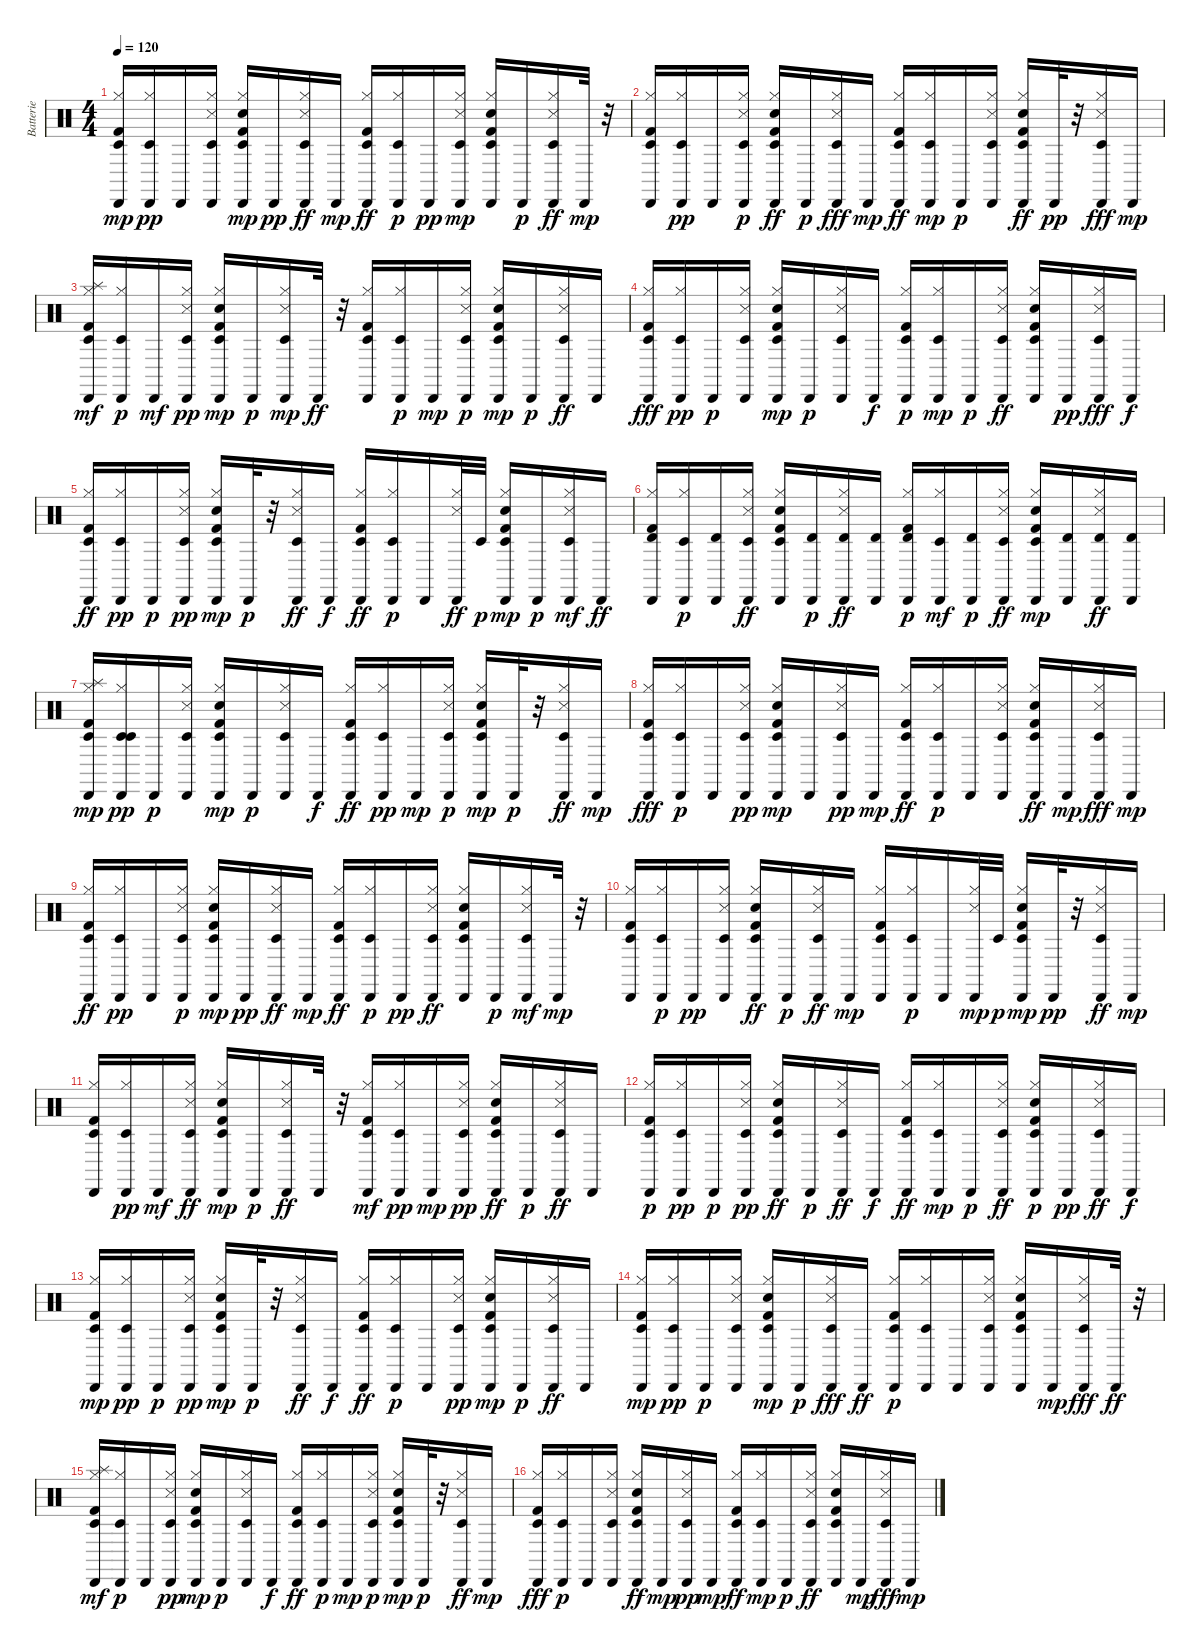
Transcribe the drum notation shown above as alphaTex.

\track ("Batterie" "Batterie") {instrument percussion}
\staff {score}
\articulation defaults
\ts (4 4)
\tempo 120
\clef neutral
\ks c
("Kick (hit) 2" "Cabasa (hit)" "Hi-Hat (closed)" "Timbale low (hit)").16{dy mp} ("Hi-Hat (closed)" "Timbale low (hit)" "Cabasa (hit)").16{dy pp} "Cabasa (hit)".16 ("Snare (side stick) 3" "Cabasa (hit)" "Hi-Hat (closed)" "Timbale low (hit)").16 ("Timbale low (hit)" "Kick (hit) 2" "Hi-Hat (closed)" "Cabasa (hit)" "Hand Clap (hit)").16{dy mp} "Cabasa (hit)".16{dy pp} ("Cabasa (hit)" "Timbale low (hit)" "Snare (side stick) 3" "Hi-Hat (closed)").16{dy ff} "Cabasa (hit)".16{dy mp} ("Timbale low (hit)" "Kick (hit) 2" "Cabasa (hit)" "Hi-Hat (closed)").16{dy ff} ("Hi-Hat (closed)" "Timbale low (hit)" "Cabasa (hit)").16{dy p} "Cabasa (hit)".16{dy pp} ("Snare (side stick) 3" "Timbale low (hit)" "Cabasa (hit)" "Hi-Hat (closed)").16{dy mp} ("Timbale low (hit)" "Kick (hit) 2" "Hand Clap (hit)" "Cabasa (hit)" "Hi-Hat (closed)").16 "Cabasa (hit)".16{dy p} ("Cabasa (hit)" "Hi-Hat (closed)" "Snare (side stick) 3" "Timbale low (hit)").16{dy ff} "Cabasa (hit)".32{dy mp} r.32 |
("Kick (hit) 2" "Cabasa (hit)" "Hi-Hat (closed)" "Timbale low (hit)").16 ("Hi-Hat (closed)" "Cabasa (hit)" "Timbale low (hit)").16{dy pp} "Cabasa (hit)".16 ("Cabasa (hit)" "Snare (side stick) 3" "Hi-Hat (closed)" "Timbale low (hit)").16{dy p} ("Timbale low (hit)" "Hi-Hat (closed)" "Kick (hit) 2" "Cabasa (hit)" "Hand Clap (hit)").16{dy ff} "Cabasa (hit)".16{dy p} ("Timbale low (hit)" "Cabasa (hit)" "Hi-Hat (closed)" "Snare (side stick) 3").16{dy fff} "Cabasa (hit)".16{dy mp} ("Timbale low (hit)" "Kick (hit) 2" "Cabasa (hit)" "Hi-Hat (closed)").16{dy ff} ("Hi-Hat (closed)" "Timbale low (hit)" "Cabasa (hit)").16{dy mp} "Cabasa (hit)".16{dy p} ("Hi-Hat (closed)" "Cabasa (hit)" "Snare (side stick) 3" "Timbale low (hit)").16 ("Hi-Hat (closed)" "Timbale low (hit)" "Kick (hit) 2" "Cabasa (hit)" "Hand Clap (hit)").16{dy ff} "Cabasa (hit)".32{dy pp} r.32 ("Cabasa (hit)" "Hi-Hat (closed)" "Timbale low (hit)" "Snare (side stick) 3").16{dy fff} "Cabasa (hit)".16{dy mp} |
("Hi-Hat (closed)" "Splash (hit)" "Kick (hit) 2" "Cabasa (hit)" "Timbale low (hit)").16{dy mf} ("Hi-Hat (closed)" "Cabasa (hit)" "Timbale low (hit)").16{dy p} "Cabasa (hit)".16{dy mf} ("Cabasa (hit)" "Snare (side stick) 3" "Hi-Hat (closed)" "Timbale low (hit)").16{dy pp} ("Hand Clap (hit)" "Hi-Hat (closed)" "Cabasa (hit)" "Kick (hit) 2" "Timbale low (hit)").16{dy mp} "Cabasa (hit)".16{dy p} ("Cabasa (hit)" "Snare (side stick) 3" "Hi-Hat (closed)" "Timbale low (hit)").16{dy mp} "Cabasa (hit)".32{dy ff} r.32 ("Cabasa (hit)" "Kick (hit) 2" "Timbale low (hit)" "Hi-Hat (closed)").16 ("Cabasa (hit)" "Hi-Hat (closed)" "Timbale low (hit)").16{dy p} "Cabasa (hit)".16{dy mp} ("Snare (side stick) 3" "Cabasa (hit)" "Timbale low (hit)" "Hi-Hat (closed)").16{dy p} ("Timbale low (hit)" "Cabasa (hit)" "Hand Clap (hit)" "Kick (hit) 2" "Hi-Hat (closed)").16{dy mp} "Cabasa (hit)".16{dy p} ("Timbale low (hit)" "Cabasa (hit)" "Snare (side stick) 3" "Hi-Hat (closed)").16{dy ff} "Cabasa (hit)".16 |
("Timbale low (hit)" "Cabasa (hit)" "Kick (hit) 2" "Hi-Hat (closed)").16{dy fff} ("Hi-Hat (closed)" "Timbale low (hit)" "Cabasa (hit)").16{dy pp} "Cabasa (hit)".16{dy p} ("Cabasa (hit)" "Snare (side stick) 3" "Timbale low (hit)" "Hi-Hat (closed)").16 ("Timbale low (hit)" "Kick (hit) 2" "Hi-Hat (closed)" "Cabasa (hit)" "Hand Clap (hit)").16{dy mp} "Cabasa (hit)".16{dy p} ("Timbale low (hit)" "Hi-Hat (closed)" "Cabasa (hit)" "Snare (side stick) 3").16 "Cabasa (hit)".16{dy f} ("Timbale low (hit)" "Kick (hit) 2" "Hi-Hat (closed)" "Cabasa (hit)").16{dy p} ("Timbale low (hit)" "Hi-Hat (closed)" "Cabasa (hit)").16{dy mp} "Cabasa (hit)".16{dy p} ("Cabasa (hit)" "Timbale low (hit)" "Hi-Hat (closed)" "Snare (side stick) 3").16{dy ff} ("Timbale low (hit)" "Hi-Hat (closed)" "Cabasa (hit)" "Kick (hit) 2" "Hand Clap (hit)").16 "Cabasa (hit)".16{dy pp} ("Cabasa (hit)" "Timbale low (hit)" "Hi-Hat (closed)" "Snare (side stick) 3").16{dy fff} "Cabasa (hit)".16{dy f} |
("Kick (hit) 2" "Cabasa (hit)" "Timbale low (hit)" "Hi-Hat (closed)").16{dy ff} ("Hi-Hat (closed)" "Timbale low (hit)" "Cabasa (hit)").16{dy pp} "Cabasa (hit)".16{dy p} ("Cabasa (hit)" "Snare (side stick) 3" "Hi-Hat (closed)" "Timbale low (hit)").16{dy pp} ("Kick (hit) 2" "Hi-Hat (closed)" "Timbale low (hit)" "Cabasa (hit)" "Hand Clap (hit)").16{dy mp} "Cabasa (hit)".32{dy p} r.32 ("Cabasa (hit)" "Snare (side stick) 3" "Timbale low (hit)" "Hi-Hat (closed)").16{dy ff} "Cabasa (hit)".16{dy f} ("Kick (hit) 2" "Cabasa (hit)" "Timbale low (hit)" "Hi-Hat (closed)").16{dy ff} ("Hi-Hat (closed)" "Cabasa (hit)" "Timbale low (hit)").16{dy p} "Cabasa (hit)".16 ("Cabasa (hit)" "Snare (side stick) 3" "Hi-Hat (closed)").32{dy ff} "Timbale low (hit)".32{dy p} ("Hi-Hat (closed)" "Kick (hit) 2" "Hand Clap (hit)" "Timbale low (hit)" "Cabasa (hit)").16{dy mp} "Cabasa (hit)".16{dy p} ("Cabasa (hit)" "Snare (side stick) 3" "Hi-Hat (closed)" "Timbale low (hit)").16{dy mf} "Cabasa (hit)".16{dy ff} |
("Timbale high (hit)" "Cabasa (hit)" "Kick (hit) 2" "Hi-Hat (closed)").16 ("Hi-Hat (closed)" "Timbale low (hit)" "Cabasa (hit)").16{dy p} ("Timbale high (hit)" "Cabasa (hit)").16 ("Timbale low (hit)" "Cabasa (hit)" "Snare (side stick) 3" "Hi-Hat (closed)").16{dy ff} ("Hi-Hat (closed)" "Timbale low (hit)" "Cabasa (hit)" "Kick (hit) 2" "Hand Clap (hit)").16 ("Timbale high (hit)" "Cabasa (hit)").16{dy p} ("Timbale high (hit)" "Cabasa (hit)" "Snare (side stick) 3" "Hi-Hat (closed)").16{dy ff} ("Timbale high (hit)" "Cabasa (hit)").16 ("Timbale high (hit)" "Kick (hit) 2" "Cabasa (hit)" "Hi-Hat (closed)").16{dy p} ("Timbale low (hit)" "Cabasa (hit)" "Hi-Hat (closed)").16{dy mf} ("Timbale high (hit)" "Cabasa (hit)").16{dy p} ("Timbale low (hit)" "Cabasa (hit)" "Snare (side stick) 3" "Hi-Hat (closed)").16{dy ff} ("Timbale low (hit)" "Cabasa (hit)" "Kick (hit) 2" "Hi-Hat (closed)" "Hand Clap (hit)").16{dy mp} ("Timbale high (hit)" "Cabasa (hit)").16 ("Timbale high (hit)" "Cabasa (hit)" "Hi-Hat (closed)" "Snare (side stick) 3").16{dy ff} ("Timbale high (hit)" "Cabasa (hit)").16 |
("Hi-Hat (closed)" "Splash (hit)" "Kick (hit) 2" "Cabasa (hit)" "Timbale low (hit)").16{dy mp} ("Hi-Hat (closed)" "Cabasa (hit)" "Timbale low (hit)" "Timbale low (hit)").16{dy pp} "Cabasa (hit)".16{dy p} ("Snare (side stick) 3" "Cabasa (hit)" "Hi-Hat (closed)" "Timbale low (hit)").16 ("Timbale low (hit)" "Hand Clap (hit)" "Hi-Hat (closed)" "Kick (hit) 2" "Cabasa (hit)").16{dy mp} "Cabasa (hit)".16{dy p} ("Timbale low (hit)" "Snare (side stick) 3" "Cabasa (hit)" "Hi-Hat (closed)").16 "Cabasa (hit)".16{dy f} ("Timbale low (hit)" "Kick (hit) 2" "Cabasa (hit)" "Hi-Hat (closed)").16{dy ff} ("Timbale low (hit)" "Hi-Hat (closed)" "Cabasa (hit)").16{dy pp} "Cabasa (hit)".16{dy mp} ("Snare (side stick) 3" "Cabasa (hit)" "Timbale low (hit)" "Hi-Hat (closed)").16{dy p} ("Timbale low (hit)" "Hand Clap (hit)" "Kick (hit) 2" "Cabasa (hit)" "Hi-Hat (closed)").16{dy mp} "Cabasa (hit)".32{dy p} r.32 ("Snare (side stick) 3" "Cabasa (hit)" "Timbale low (hit)" "Hi-Hat (closed)").16{dy ff} "Cabasa (hit)".16{dy mp} |
("Cabasa (hit)" "Kick (hit) 2" "Timbale low (hit)" "Hi-Hat (closed)").16{dy fff} ("Hi-Hat (closed)" "Cabasa (hit)" "Timbale low (hit)").16{dy p} "Cabasa (hit)".16 ("Cabasa (hit)" "Snare (side stick) 3" "Hi-Hat (closed)" "Timbale low (hit)").16{dy pp} ("Kick (hit) 2" "Hi-Hat (closed)" "Cabasa (hit)" "Hand Clap (hit)" "Timbale low (hit)").16{dy mp} "Cabasa (hit)".16 ("Cabasa (hit)" "Hi-Hat (closed)" "Snare (side stick) 3" "Timbale low (hit)").16{dy pp} "Cabasa (hit)".16{dy mp} ("Kick (hit) 2" "Timbale low (hit)" "Hi-Hat (closed)" "Cabasa (hit)").16{dy ff} ("Hi-Hat (closed)" "Cabasa (hit)" "Timbale low (hit)").16{dy p} "Cabasa (hit)".16 ("Cabasa (hit)" "Hi-Hat (closed)" "Snare (side stick) 3" "Timbale low (hit)").16 ("Timbale low (hit)" "Hi-Hat (closed)" "Cabasa (hit)" "Kick (hit) 2" "Hand Clap (hit)").16{dy ff} "Cabasa (hit)".16{dy mp} ("Timbale low (hit)" "Cabasa (hit)" "Hi-Hat (closed)" "Snare (side stick) 3").16{dy fff} "Cabasa (hit)".16{dy mp} |
("Kick (hit) 2" "Timbale low (hit)" "Cabasa (hit)" "Hi-Hat (closed)").16{dy ff} ("Hi-Hat (closed)" "Timbale low (hit)" "Cabasa (hit)").16{dy pp} "Cabasa (hit)".16 ("Snare (side stick) 3" "Cabasa (hit)" "Timbale low (hit)" "Hi-Hat (closed)").16{dy p} ("Timbale low (hit)" "Kick (hit) 2" "Hi-Hat (closed)" "Cabasa (hit)" "Hand Clap (hit)").16{dy mp} "Cabasa (hit)".16{dy pp} ("Timbale low (hit)" "Snare (side stick) 3" "Cabasa (hit)" "Hi-Hat (closed)").16{dy ff} "Cabasa (hit)".16{dy mp} ("Timbale low (hit)" "Cabasa (hit)" "Kick (hit) 2" "Hi-Hat (closed)").16{dy ff} ("Timbale low (hit)" "Hi-Hat (closed)" "Cabasa (hit)").16{dy p} "Cabasa (hit)".16{dy pp} ("Timbale low (hit)" "Cabasa (hit)" "Snare (side stick) 3" "Hi-Hat (closed)").16{dy ff} ("Timbale low (hit)" "Hi-Hat (closed)" "Cabasa (hit)" "Kick (hit) 2" "Hand Clap (hit)").16 "Cabasa (hit)".16{dy p} ("Cabasa (hit)" "Timbale low (hit)" "Snare (side stick) 3" "Hi-Hat (closed)").16{dy mf} "Cabasa (hit)".32{dy mp} r.32 |
("Cabasa (hit)" "Kick (hit) 2" "Timbale low (hit)" "Hi-Hat (closed)").16 ("Hi-Hat (closed)" "Timbale low (hit)" "Cabasa (hit)").16{dy p} "Cabasa (hit)".16{dy pp} ("Cabasa (hit)" "Snare (side stick) 3" "Hi-Hat (closed)" "Timbale low (hit)").16 ("Hi-Hat (closed)" "Cabasa (hit)" "Timbale low (hit)" "Kick (hit) 2" "Hand Clap (hit)").16{dy ff} "Cabasa (hit)".16{dy p} ("Cabasa (hit)" "Timbale low (hit)" "Snare (side stick) 3" "Hi-Hat (closed)").16{dy ff} "Cabasa (hit)".16{dy mp} ("Cabasa (hit)" "Kick (hit) 2" "Timbale low (hit)" "Hi-Hat (closed)").16 ("Cabasa (hit)" "Hi-Hat (closed)" "Timbale low (hit)").16{dy p} "Cabasa (hit)".16 ("Cabasa (hit)" "Snare (side stick) 3" "Hi-Hat (closed)").32{dy mp} "Timbale low (hit)".32{dy p} ("Cabasa (hit)" "Kick (hit) 2" "Timbale low (hit)" "Hi-Hat (closed)" "Hand Clap (hit)").16{dy mp} "Cabasa (hit)".32{dy pp} r.32 ("Cabasa (hit)" "Hi-Hat (closed)" "Snare (side stick) 3" "Timbale low (hit)").16{dy ff} "Cabasa (hit)".16{dy mp} |
("Kick (hit) 2" "Cabasa (hit)" "Hi-Hat (closed)" "Timbale low (hit)").16 ("Hi-Hat (closed)" "Cabasa (hit)" "Timbale low (hit)").16{dy pp} "Cabasa (hit)".16{dy mf} ("Cabasa (hit)" "Snare (side stick) 3" "Timbale low (hit)" "Hi-Hat (closed)").16{dy ff} ("Kick (hit) 2" "Timbale low (hit)" "Cabasa (hit)" "Hi-Hat (closed)" "Hand Clap (hit)").16{dy mp} "Cabasa (hit)".16{dy p} ("Cabasa (hit)" "Snare (side stick) 3" "Hi-Hat (closed)" "Timbale low (hit)").16{dy ff} "Cabasa (hit)".32 r.32 ("Cabasa (hit)" "Kick (hit) 2" "Timbale low (hit)" "Hi-Hat (closed)").16{dy mf} ("Hi-Hat (closed)" "Timbale low (hit)" "Cabasa (hit)").16{dy pp} "Cabasa (hit)".16{dy mp} ("Cabasa (hit)" "Snare (side stick) 3" "Hi-Hat (closed)" "Timbale low (hit)").16{dy pp} ("Timbale low (hit)" "Hi-Hat (closed)" "Cabasa (hit)" "Kick (hit) 2" "Hand Clap (hit)").16{dy ff} "Cabasa (hit)".16{dy p} ("Hi-Hat (closed)" "Cabasa (hit)" "Timbale low (hit)" "Snare (side stick) 3").16{dy ff} "Cabasa (hit)".16 |
("Kick (hit) 2" "Cabasa (hit)" "Hi-Hat (closed)" "Timbale low (hit)").16{dy p} ("Hi-Hat (closed)" "Timbale low (hit)" "Cabasa (hit)").16{dy pp} "Cabasa (hit)".16{dy p} ("Snare (side stick) 3" "Cabasa (hit)" "Hi-Hat (closed)" "Timbale low (hit)").16{dy pp} ("Timbale low (hit)" "Hi-Hat (closed)" "Cabasa (hit)" "Kick (hit) 2" "Hand Clap (hit)").16{dy ff} "Cabasa (hit)".16{dy p} ("Timbale low (hit)" "Cabasa (hit)" "Snare (side stick) 3" "Hi-Hat (closed)").16{dy ff} "Cabasa (hit)".16{dy f} ("Timbale low (hit)" "Cabasa (hit)" "Kick (hit) 2" "Hi-Hat (closed)").16{dy ff} ("Timbale low (hit)" "Hi-Hat (closed)" "Cabasa (hit)").16{dy mp} "Cabasa (hit)".16{dy p} ("Cabasa (hit)" "Snare (side stick) 3" "Timbale low (hit)" "Hi-Hat (closed)").16{dy ff} ("Timbale low (hit)" "Hi-Hat (closed)" "Kick (hit) 2" "Cabasa (hit)" "Hand Clap (hit)").16{dy p} "Cabasa (hit)".16{dy pp} ("Cabasa (hit)" "Timbale low (hit)" "Hi-Hat (closed)" "Snare (side stick) 3").16{dy ff} "Cabasa (hit)".16{dy f} |
("Kick (hit) 2" "Cabasa (hit)" "Hi-Hat (closed)" "Timbale low (hit)").16{dy mp} ("Hi-Hat (closed)" "Timbale low (hit)" "Cabasa (hit)").16{dy pp} "Cabasa (hit)".16{dy p} ("Cabasa (hit)" "Snare (side stick) 3" "Hi-Hat (closed)" "Timbale low (hit)").16{dy pp} ("Timbale low (hit)" "Kick (hit) 2" "Hi-Hat (closed)" "Cabasa (hit)" "Hand Clap (hit)").16{dy mp} "Cabasa (hit)".32{dy p} r.32 ("Cabasa (hit)" "Timbale low (hit)" "Snare (side stick) 3" "Hi-Hat (closed)").16{dy ff} "Cabasa (hit)".16{dy f} ("Timbale low (hit)" "Kick (hit) 2" "Cabasa (hit)" "Hi-Hat (closed)").16{dy ff} ("Hi-Hat (closed)" "Timbale low (hit)" "Cabasa (hit)").16{dy p} "Cabasa (hit)".16 ("Snare (side stick) 3" "Timbale low (hit)" "Cabasa (hit)" "Hi-Hat (closed)").16{dy pp} ("Timbale low (hit)" "Kick (hit) 2" "Hand Clap (hit)" "Hi-Hat (closed)" "Cabasa (hit)").16{dy mp} "Cabasa (hit)".16{dy p} ("Cabasa (hit)" "Hi-Hat (closed)" "Snare (side stick) 3" "Timbale low (hit)").16{dy ff} "Cabasa (hit)".16 |
("Kick (hit) 2" "Cabasa (hit)" "Hi-Hat (closed)" "Timbale low (hit)").16{dy mp} ("Hi-Hat (closed)" "Cabasa (hit)" "Timbale low (hit)").16{dy pp} "Cabasa (hit)".16{dy p} ("Cabasa (hit)" "Snare (side stick) 3" "Hi-Hat (closed)" "Timbale low (hit)").16 ("Timbale low (hit)" "Hi-Hat (closed)" "Kick (hit) 2" "Cabasa (hit)" "Hand Clap (hit)").16{dy mp} "Cabasa (hit)".16{dy p} ("Timbale low (hit)" "Cabasa (hit)" "Hi-Hat (closed)" "Snare (side stick) 3").16{dy fff} "Cabasa (hit)".16{dy ff} ("Timbale low (hit)" "Kick (hit) 2" "Hi-Hat (closed)" "Cabasa (hit)").16{dy p} ("Hi-Hat (closed)" "Timbale low (hit)" "Cabasa (hit)").16 "Cabasa (hit)".16 ("Hi-Hat (closed)" "Cabasa (hit)" "Snare (side stick) 3" "Timbale low (hit)").16 ("Hi-Hat (closed)" "Timbale low (hit)" "Kick (hit) 2" "Hand Clap (hit)" "Cabasa (hit)").16 "Cabasa (hit)".16{dy mp} ("Cabasa (hit)" "Hi-Hat (closed)" "Timbale low (hit)" "Snare (side stick) 3").16{dy fff} "Cabasa (hit)".32{dy ff} r.32 |
("Hi-Hat (closed)" "Splash (hit)" "Kick (hit) 2" "Cabasa (hit)" "Timbale low (hit)").16{dy mf} ("Hi-Hat (closed)" "Cabasa (hit)" "Timbale low (hit)").16{dy p} "Cabasa (hit)".16 ("Snare (side stick) 3" "Cabasa (hit)" "Hi-Hat (closed)" "Timbale low (hit)").16{dy pp} ("Hand Clap (hit)" "Hi-Hat (closed)" "Kick (hit) 2" "Cabasa (hit)" "Timbale low (hit)").16{dy mp} "Cabasa (hit)".16{dy p} ("Snare (side stick) 3" "Cabasa (hit)" "Hi-Hat (closed)" "Timbale low (hit)").16 "Cabasa (hit)".16{dy f} ("Kick (hit) 2" "Timbale low (hit)" "Cabasa (hit)" "Hi-Hat (closed)").16{dy ff} ("Hi-Hat (closed)" "Cabasa (hit)" "Timbale low (hit)").16{dy p} "Cabasa (hit)".16{dy mp} ("Snare (side stick) 3" "Cabasa (hit)" "Timbale low (hit)" "Hi-Hat (closed)").16{dy p} ("Timbale low (hit)" "Hand Clap (hit)" "Kick (hit) 2" "Cabasa (hit)" "Hi-Hat (closed)").16{dy mp} "Cabasa (hit)".32{dy p} r.32 ("Timbale low (hit)" "Snare (side stick) 3" "Cabasa (hit)" "Hi-Hat (closed)").16{dy ff} "Cabasa (hit)".16{dy mp} |
("Timbale low (hit)" "Cabasa (hit)" "Kick (hit) 2" "Hi-Hat (closed)").16{dy fff} ("Hi-Hat (closed)" "Timbale low (hit)" "Cabasa (hit)").16{dy p} "Cabasa (hit)".16 ("Cabasa (hit)" "Snare (side stick) 3" "Timbale low (hit)" "Hi-Hat (closed)").16 ("Timbale low (hit)" "Kick (hit) 2" "Hi-Hat (closed)" "Cabasa (hit)" "Hand Clap (hit)").16{dy ff} "Cabasa (hit)".16{dy mp} ("Timbale low (hit)" "Cabasa (hit)" "Hi-Hat (closed)" "Snare (side stick) 3").16{dy pp} "Cabasa (hit)".16{dy mp} ("Timbale low (hit)" "Kick (hit) 2" "Hi-Hat (closed)" "Cabasa (hit)").16{dy ff} ("Timbale low (hit)" "Hi-Hat (closed)" "Cabasa (hit)").16{dy mp} "Cabasa (hit)".16{dy p} ("Timbale low (hit)" "Cabasa (hit)" "Hi-Hat (closed)" "Snare (side stick) 3").16{dy ff} ("Timbale low (hit)" "Hi-Hat (closed)" "Cabasa (hit)" "Kick (hit) 2" "Hand Clap (hit)").16 "Cabasa (hit)".16{dy mp} ("Cabasa (hit)" "Timbale low (hit)" "Hi-Hat (closed)" "Snare (side stick) 3").16{dy fff} "Cabasa (hit)".16{dy mp}
